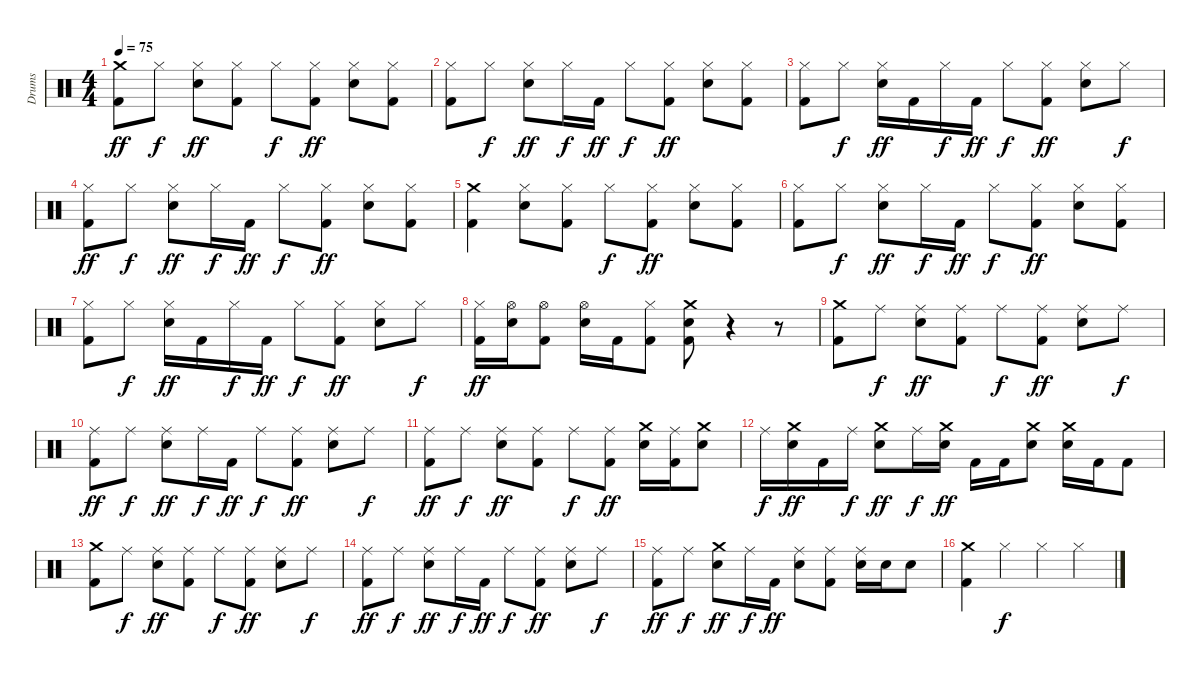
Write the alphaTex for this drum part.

\track ("Drums" "Drums") {instrument percussion}
\staff {score}
\articulation defaults
\ts (4 4)
\tempo 75
\clef neutral
\ks c
("Crash medium (hit)" "Kick (hit) 2").8{dy ff} "Hi-Hat (closed)".8{dy f} ("Hi-Hat (closed)" "Electric Snare (hit)").8{dy ff} ("Hi-Hat (closed)" "Kick (hit) 2").8 "Hi-Hat (closed)".8{dy f} ("Hi-Hat (closed)" "Kick (hit) 2").8{dy ff} ("Hi-Hat (closed)" "Electric Snare (hit)").8 ("Hi-Hat (closed)" "Kick (hit) 2").8 |
("Hi-Hat (closed)" "Kick (hit) 2").8 "Hi-Hat (closed)".8{dy f} ("Hi-Hat (closed)" "Electric Snare (hit)").8{dy ff} "Hi-Hat (closed)".16{dy f} "Kick (hit) 2".16{dy ff} "Hi-Hat (closed)".8{dy f} ("Hi-Hat (closed)" "Kick (hit) 2").8{dy ff} ("Hi-Hat (closed)" "Electric Snare (hit)").8 ("Hi-Hat (closed)" "Kick (hit) 2").8 |
("Hi-Hat (closed)" "Kick (hit) 2").8 "Hi-Hat (closed)".8{dy f} ("Hi-Hat (closed)" "Electric Snare (hit)").16{dy ff} "Kick (hit) 2".16 "Hi-Hat (closed)".16{dy f} "Kick (hit) 2".16{dy ff} "Hi-Hat (closed)".8{dy f} ("Hi-Hat (closed)" "Kick (hit) 2").8{dy ff} ("Hi-Hat (closed)" "Electric Snare (hit)").8 "Hi-Hat (closed)".8{dy f} |
("Hi-Hat (closed)" "Kick (hit) 2").8{dy ff} "Hi-Hat (closed)".8{dy f} ("Hi-Hat (closed)" "Electric Snare (hit)").8{dy ff} "Hi-Hat (closed)".16{dy f} "Kick (hit) 2".16{dy ff} "Hi-Hat (closed)".8{dy f} ("Hi-Hat (closed)" "Kick (hit) 2").8{dy ff} ("Hi-Hat (closed)" "Electric Snare (hit)").8 ("Hi-Hat (closed)" "Kick (hit) 2").8 |
("Crash medium (hit)" "Kick (hit) 2").4 ("Hi-Hat (closed)" "Electric Snare (hit)").8 ("Hi-Hat (closed)" "Kick (hit) 2").8 "Hi-Hat (closed)".8{dy f} ("Hi-Hat (closed)" "Kick (hit) 2").8{dy ff} ("Hi-Hat (closed)" "Electric Snare (hit)").8 ("Hi-Hat (closed)" "Kick (hit) 2").8 |
("Hi-Hat (closed)" "Kick (hit) 2").8 "Hi-Hat (closed)".8{dy f} ("Hi-Hat (closed)" "Electric Snare (hit)").8{dy ff} "Hi-Hat (closed)".16{dy f} "Kick (hit) 2".16{dy ff} "Hi-Hat (closed)".8{dy f} ("Hi-Hat (closed)" "Kick (hit) 2").8{dy ff} ("Hi-Hat (closed)" "Electric Snare (hit)").8 ("Hi-Hat (closed)" "Kick (hit) 2").8 |
("Hi-Hat (closed)" "Kick (hit) 2").8 "Hi-Hat (closed)".8{dy f} ("Hi-Hat (closed)" "Electric Snare (hit)").16{dy ff} "Kick (hit) 2".16 "Hi-Hat (closed)".16{dy f} "Kick (hit) 2".16{dy ff} "Hi-Hat (closed)".8{dy f} ("Hi-Hat (closed)" "Kick (hit) 2").8{dy ff} ("Hi-Hat (closed)" "Electric Snare (hit)").8 "Hi-Hat (closed)".8{dy f} |
("Hi-Hat (closed)" "Kick (hit) 2").16{dy ff} ("Hi-Hat (open)" "Electric Snare (hit)").16 ("Hi-Hat (open)" "Kick (hit) 2").8 ("Hi-Hat (open)" "Electric Snare (hit)").16 "Kick (hit) 2".16 ("Hi-Hat (closed)" "Kick (hit) 2").8 ("Crash medium (hit)" "Electric Snare (hit)" "Kick (hit) 2").8 r.4 r.8 |
("Crash medium (hit)" "Kick (hit) 2").8 "Ride (middle)".8{dy f} ("Ride (middle)" "Electric Snare (hit)").8{dy ff} ("Ride (middle)" "Kick (hit) 2").8 "Ride (middle)".8{dy f} ("Ride (middle)" "Kick (hit) 2").8{dy ff} ("Ride (middle)" "Electric Snare (hit)").8 "Ride (middle)".8{dy f} |
("Ride (middle)" "Kick (hit) 2").8{dy ff} "Ride (middle)".8{dy f} ("Ride (middle)" "Electric Snare (hit)").8{dy ff} "Ride (middle)".16{dy f} "Kick (hit) 2".16{dy ff} "Ride (middle)".8{dy f} ("Ride (middle)" "Kick (hit) 2").8{dy ff} ("Ride (middle)" "Electric Snare (hit)").8 "Ride (middle)".8{dy f} |
("Ride (middle)" "Kick (hit) 2").8{dy ff} "Ride (middle)".8{dy f} ("Ride (middle)" "Electric Snare (hit)").8{dy ff} ("Ride (middle)" "Kick (hit) 2").8 "Ride (middle)".8{dy f} ("Ride (middle)" "Kick (hit) 2").8{dy ff} ("Crash medium (hit)" "Electric Snare (hit)").16 ("Ride (middle)" "Kick (hit) 2").16 ("Crash medium (hit)" "Electric Snare (hit)").8 |
"Ride (middle)".16{dy f} ("Crash medium (hit)" "Electric Snare (hit)").16{dy ff} "Kick (hit) 2".16 "Ride (middle)".16{dy f} ("Crash medium (hit)" "Electric Snare (hit)").8{dy ff} "Ride (middle)".16{dy f} ("Crash medium (hit)" "Electric Snare (hit)").16{dy ff} "Kick (hit) 2".16 "Kick (hit) 2".16 ("Crash medium (hit)" "Electric Snare (hit)").8 ("Crash medium (hit)" "Electric Snare (hit)").16 "Kick (hit) 2".16 "Kick (hit) 2".8 |
("Crash medium (hit)" "Kick (hit) 2").8 "Ride (middle)".8{dy f} ("Ride (middle)" "Electric Snare (hit)").8{dy ff} ("Ride (middle)" "Kick (hit) 2").8 "Ride (middle)".8{dy f} ("Ride (middle)" "Kick (hit) 2").8{dy ff} ("Ride (middle)" "Electric Snare (hit)").8 "Ride (middle)".8{dy f} |
("Ride (middle)" "Kick (hit) 2").8{dy ff} "Ride (middle)".8{dy f} ("Ride (middle)" "Electric Snare (hit)").8{dy ff} "Ride (middle)".16{dy f} "Kick (hit) 2".16{dy ff} "Ride (middle)".8{dy f} ("Ride (middle)" "Kick (hit) 2").8{dy ff} ("Ride (middle)" "Electric Snare (hit)").8 "Ride (middle)".8{dy f} |
("Ride (middle)" "Kick (hit) 2").8{dy ff} "Ride (middle)".8{dy f} ("Crash medium (hit)" "Electric Snare (hit)").8{dy ff} "Ride (middle)".16{dy f} "Kick (hit) 2".16{dy ff} ("Ride (middle)" "Electric Snare (hit)").8 ("Ride (middle)" "Kick (hit) 2").8 ("Ride (middle)" "Electric Snare (hit)").16 "Electric Snare (hit)".16 "Electric Snare (hit)".8 |
("Crash medium (hit)" "Kick (hit) 2").4 "Hi-Hat (closed)".4{dy f} "Hi-Hat (closed)".4 "Hi-Hat (closed)".4
